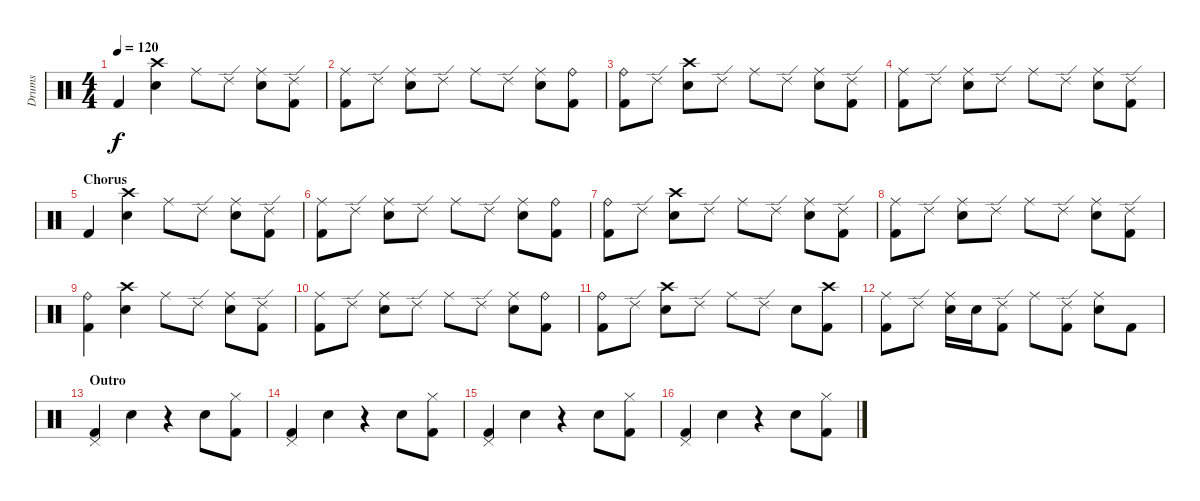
\track ("Drums" "Drums") {instrument percussion}
\staff {score}
\articulation defaults
\ts (4 4)
\tempo 120
\clef neutral
\ks c "Kick (hit) 2".4{dy f}
("Electric Snare (hit)" "Crash high (hit)").4 "Ride (middle)".8 "Ride (edge) 2".8 ("Electric Snare (hit)" "Ride (middle)").8 ("Kick (hit) 2" "Ride (edge) 2").8 |
("Kick (hit) 2" "Ride (middle)").8 "Ride (edge) 2".8 ("Electric Snare (hit)" "Ride (middle)").8 "Ride (edge) 2".8 "Ride (middle)".8 "Ride (edge) 2".8 ("Electric Snare (hit)" "Ride (middle)").8 ("Kick (hit) 2" "Ride (bell)").8 |
("Kick (hit) 2" "Ride (bell)").8 "Ride (edge) 2".8 ("Electric Snare (hit)" "Crash high (hit)").8 "Ride (edge) 2".8 "Ride (middle)".8 "Ride (edge) 2".8 ("Electric Snare (hit)" "Ride (middle)").8 ("Kick (hit) 2" "Ride (edge) 2").8 |
("Kick (hit) 2" "Ride (middle)").8 "Ride (edge) 2".8 ("Electric Snare (hit)" "Ride (middle)").8 "Ride (edge) 2".8 "Ride (middle)".8 "Ride (edge) 2".8 ("Electric Snare (hit)" "Ride (middle)").8 ("Kick (hit) 2" "Ride (edge) 2").8 |
\section ("" "Chorus")
"Kick (hit) 2".4 ("Electric Snare (hit)" "Crash high (hit)").4 "Ride (middle)".8 "Ride (edge) 2".8 ("Electric Snare (hit)" "Ride (middle)").8 ("Kick (hit) 2" "Ride (edge) 2").8 |
("Kick (hit) 2" "Ride (middle)").8 "Ride (edge) 2".8 ("Electric Snare (hit)" "Ride (middle)").8 "Ride (edge) 2".8 "Ride (middle)".8 "Ride (edge) 2".8 ("Electric Snare (hit)" "Ride (middle)").8 ("Kick (hit) 2" "Ride (bell)").8 |
("Kick (hit) 2" "Ride (bell)").8 "Ride (edge) 2".8 ("Electric Snare (hit)" "Crash high (hit)").8 "Ride (edge) 2".8 "Ride (middle)".8 "Ride (edge) 2".8 ("Electric Snare (hit)" "Ride (middle)").8 ("Kick (hit) 2" "Ride (edge) 2").8 |
("Kick (hit) 2" "Ride (middle)").8 "Ride (edge) 2".8 ("Electric Snare (hit)" "Ride (middle)").8 "Ride (edge) 2".8 "Ride (middle)".8 "Ride (edge) 2".8 ("Electric Snare (hit)" "Ride (middle)").8 ("Kick (hit) 2" "Ride (edge) 2").8 |
("Kick (hit) 2" "Ride (bell)").4 ("Electric Snare (hit)" "Crash high (hit)").4 "Ride (middle)".8 "Ride (edge) 2".8 ("Electric Snare (hit)" "Ride (middle)").8 ("Kick (hit) 2" "Ride (edge) 2").8 |
("Kick (hit) 2" "Ride (middle)").8 "Ride (edge) 2".8 ("Electric Snare (hit)" "Ride (middle)").8 "Ride (edge) 2".8 "Ride (middle)".8 "Ride (edge) 2".8 ("Electric Snare (hit)" "Ride (middle)").8 ("Kick (hit) 2" "Ride (bell)").8 |
("Kick (hit) 2" "Ride (bell)").8 "Ride (edge) 2".8 ("Electric Snare (hit)" "Crash high (hit)").8 "Ride (edge) 2".8 "Ride (middle)".8 "Ride (edge) 2".8 "Electric Snare (hit)".8 ("Kick (hit) 2" "Crash high (hit)").8 |
("Kick (hit) 2" "Ride (middle)").8 "Ride (edge) 2".8 ("Electric Snare (hit)" "Ride (middle)").16 "Snare (hit) 2".16 ("Kick (hit) 2" "Ride (edge) 2").8 "Ride (middle)".8 ("Kick (hit) 2" "Ride (edge) 2").8 ("Electric Snare (hit)" "Ride (middle)").8 "Kick (hit) 2".8 |
\section ("" "Outro")
("Kick (hit) 2" "Pedal Hi-Hat (hit)").4 "Electric Snare (hit)".4 r.4 "Electric Snare (hit)".8 ("Kick (hit) 2" "Hi-Hat (closed)").8 |
("Kick (hit) 2" "Pedal Hi-Hat (hit)").4 "Electric Snare (hit)".4 r.4 "Electric Snare (hit)".8 ("Kick (hit) 2" "Hi-Hat (closed)").8 |
("Kick (hit) 2" "Pedal Hi-Hat (hit)").4 "Electric Snare (hit)".4 r.4 "Electric Snare (hit)".8 ("Kick (hit) 2" "Hi-Hat (closed)").8 |
("Kick (hit) 2" "Pedal Hi-Hat (hit)").4 "Electric Snare (hit)".4 r.4 "Electric Snare (hit)".8 ("Kick (hit) 2" "Hi-Hat (closed)").8
